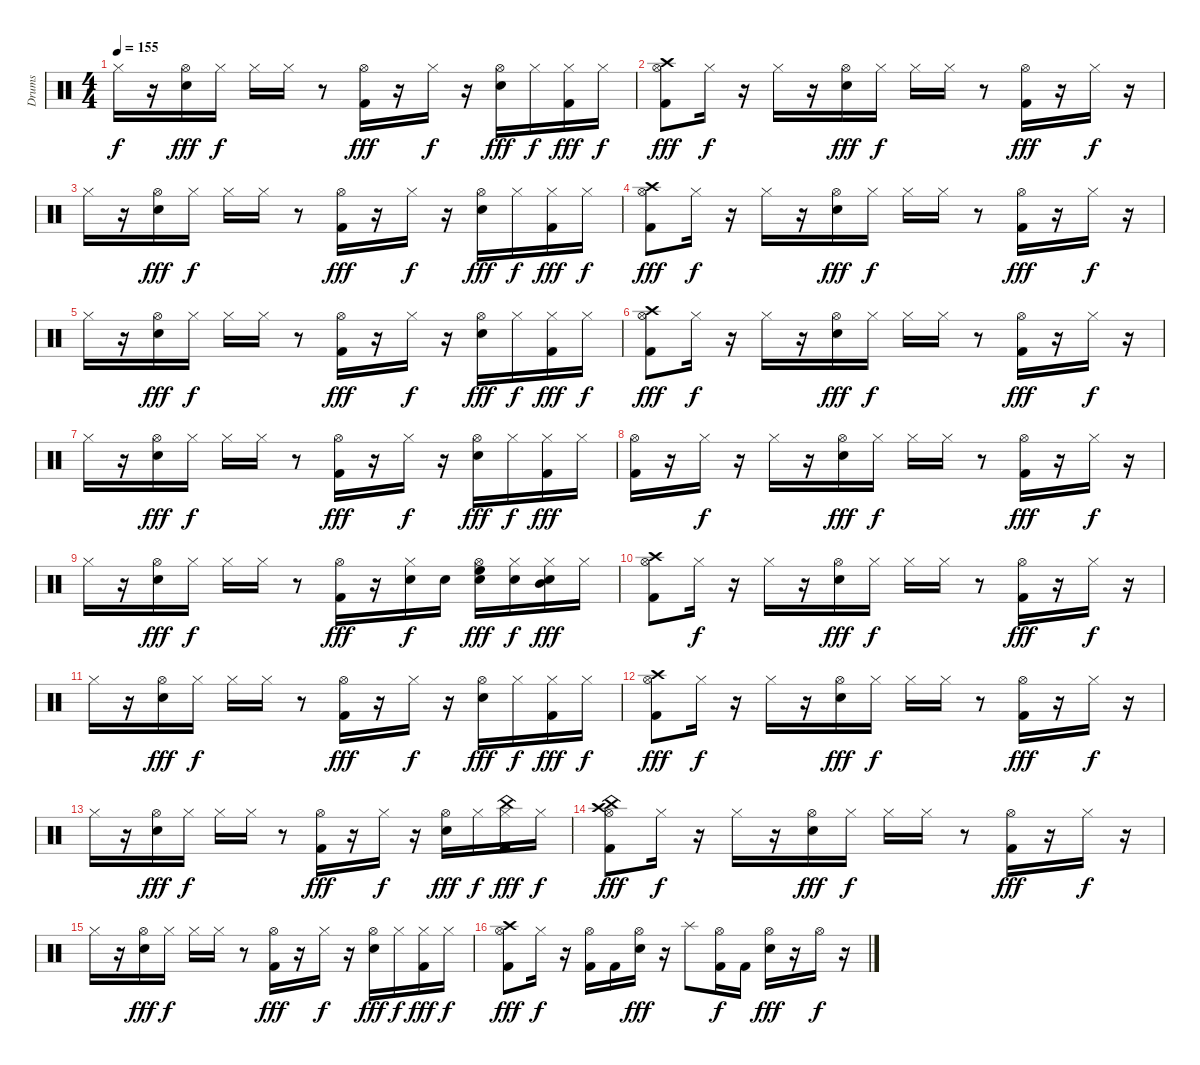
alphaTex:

\track ("Drums" "Drums") {instrument percussion}
\staff {score}
\articulation defaults
\ts (4 4)
\tempo 155
\clef neutral
\ks c "Hi-Hat (closed)".16{dy f}
r.16 ("Hi-Hat (open)" "Electric Snare (hit)").16{dy fff} "Hi-Hat (closed)".16{dy f} "Hi-Hat (closed)".16 "Hi-Hat (closed)".16 r.8 ("Hi-Hat (open)" "Kick (hit) 2").16{dy fff} r.16 "Hi-Hat (closed)".16{dy f} r.16 ("Hi-Hat (open)" "Electric Snare (hit)").16{dy fff} "Hi-Hat (closed)".16{dy f} ("Hi-Hat (closed)" "Kick (hit) 2").16{dy fff} "Hi-Hat (closed)".16{dy f} |
("Crash high (hit)" "Kick (hit) 2" "Hi-Hat (open)").8{dy fff} "Hi-Hat (closed)".16{dy f} r.16 "Hi-Hat (closed)".16 r.16 ("Hi-Hat (open)" "Electric Snare (hit)").16{dy fff} "Hi-Hat (closed)".16{dy f} "Hi-Hat (closed)".16 "Hi-Hat (closed)".16 r.8 ("Hi-Hat (open)" "Kick (hit) 2").16{dy fff} r.16 "Hi-Hat (closed)".16{dy f} r.16 |
"Hi-Hat (closed)".16 r.16 ("Hi-Hat (open)" "Electric Snare (hit)").16{dy fff} "Hi-Hat (closed)".16{dy f} "Hi-Hat (closed)".16 "Hi-Hat (closed)".16 r.8 ("Hi-Hat (open)" "Kick (hit) 2").16{dy fff} r.16 "Hi-Hat (closed)".16{dy f} r.16 ("Hi-Hat (open)" "Electric Snare (hit)").16{dy fff} "Hi-Hat (closed)".16{dy f} ("Hi-Hat (closed)" "Kick (hit) 2").16{dy fff} "Hi-Hat (closed)".16{dy f} |
("Crash high (hit)" "Kick (hit) 2" "Hi-Hat (open)").8{dy fff} "Hi-Hat (closed)".16{dy f} r.16 "Hi-Hat (closed)".16 r.16 ("Hi-Hat (open)" "Electric Snare (hit)").16{dy fff} "Hi-Hat (closed)".16{dy f} "Hi-Hat (closed)".16 "Hi-Hat (closed)".16 r.8 ("Hi-Hat (open)" "Kick (hit) 2").16{dy fff} r.16 "Hi-Hat (closed)".16{dy f} r.16 |
"Hi-Hat (closed)".16 r.16 ("Hi-Hat (open)" "Electric Snare (hit)").16{dy fff} "Hi-Hat (closed)".16{dy f} "Hi-Hat (closed)".16 "Hi-Hat (closed)".16 r.8 ("Hi-Hat (open)" "Kick (hit) 2").16{dy fff} r.16 "Hi-Hat (closed)".16{dy f} r.16 ("Hi-Hat (open)" "Electric Snare (hit)").16{dy fff} "Hi-Hat (closed)".16{dy f} ("Hi-Hat (closed)" "Kick (hit) 2").16{dy fff} "Hi-Hat (closed)".16{dy f} |
("Crash high (hit)" "Kick (hit) 2" "Hi-Hat (open)").8{dy fff} "Hi-Hat (closed)".16{dy f} r.16 "Hi-Hat (closed)".16 r.16 ("Hi-Hat (open)" "Electric Snare (hit)").16{dy fff} "Hi-Hat (closed)".16{dy f} "Hi-Hat (closed)".16 "Hi-Hat (closed)".16 r.8 ("Hi-Hat (open)" "Kick (hit) 2").16{dy fff} r.16 "Hi-Hat (closed)".16{dy f} r.16 |
"Hi-Hat (closed)".16 r.16 ("Hi-Hat (open)" "Electric Snare (hit)").16{dy fff} "Hi-Hat (closed)".16{dy f} "Hi-Hat (closed)".16 "Hi-Hat (closed)".16 r.8 ("Hi-Hat (open)" "Kick (hit) 2").16{dy fff} r.16 "Hi-Hat (closed)".16{dy f} r.16 ("Hi-Hat (open)" "Electric Snare (hit)").16{dy fff} "Hi-Hat (closed)".16{dy f} ("Hi-Hat (closed)" "Kick (hit) 2").16{dy fff} "Hi-Hat (closed)".16 |
("Hi-Hat (open)" "Kick (hit) 2").16 r.16 "Hi-Hat (closed)".16{dy f} r.16 "Hi-Hat (closed)".16 r.16 ("Hi-Hat (open)" "Electric Snare (hit)").16{dy fff} "Hi-Hat (closed)".16{dy f} "Hi-Hat (closed)".16 "Hi-Hat (closed)".16 r.8 ("Hi-Hat (open)" "Kick (hit) 2").16{dy fff} r.16 "Hi-Hat (closed)".16{dy f} r.16 |
"Hi-Hat (closed)".16 r.16 ("Hi-Hat (open)" "Electric Snare (hit)").16{dy fff} "Hi-Hat (closed)".16{dy f} "Hi-Hat (closed)".16 "Hi-Hat (closed)".16 r.8 ("Hi-Hat (open)" "Kick (hit) 2").16{dy fff} r.16 ("Electric Snare (hit)" "Hi-Hat (closed)").16{dy f} "Electric Snare (hit)".16 ("High Floor Tom (hit)" "Hi-Hat (open)" "Electric Snare (hit)").16{dy fff} ("Electric Snare (hit)" "Hi-Hat (closed)").16{dy f} ("Hi-Hat (closed)" "Electric Snare (hit)" "Mid Tom (hit)").16{dy fff} "Hi-Hat (closed)".16 |
("Crash high (hit)" "Kick (hit) 2" "Hi-Hat (open)").8 "Hi-Hat (closed)".16{dy f} r.16 "Hi-Hat (closed)".16 r.16 ("Hi-Hat (open)" "Electric Snare (hit)").16{dy fff} "Hi-Hat (closed)".16{dy f} "Hi-Hat (closed)".16 "Hi-Hat (closed)".16 r.8 ("Hi-Hat (open)" "Kick (hit) 2").16{dy fff} r.16 "Hi-Hat (closed)".16{dy f} r.16 |
"Hi-Hat (closed)".16 r.16 ("Hi-Hat (open)" "Electric Snare (hit)").16{dy fff} "Hi-Hat (closed)".16{dy f} "Hi-Hat (closed)".16 "Hi-Hat (closed)".16 r.8 ("Hi-Hat (open)" "Kick (hit) 2").16{dy fff} r.16 "Hi-Hat (closed)".16{dy f} r.16 ("Hi-Hat (open)" "Electric Snare (hit)").16{dy fff} "Hi-Hat (closed)".16{dy f} ("Hi-Hat (closed)" "Kick (hit) 2").16{dy fff} "Hi-Hat (closed)".16{dy f} |
("Crash high (hit)" "Kick (hit) 2" "Hi-Hat (open)").8{dy fff} "Hi-Hat (closed)".16{dy f} r.16 "Hi-Hat (closed)".16 r.16 ("Hi-Hat (open)" "Electric Snare (hit)").16{dy fff} "Hi-Hat (closed)".16{dy f} "Hi-Hat (closed)".16 "Hi-Hat (closed)".16 r.8 ("Hi-Hat (open)" "Kick (hit) 2").16{dy fff} r.16 "Hi-Hat (closed)".16{dy f} r.16 |
"Hi-Hat (closed)".16 r.16 ("Hi-Hat (open)" "Electric Snare (hit)").16{dy fff} "Hi-Hat (closed)".16{dy f} "Hi-Hat (closed)".16 "Hi-Hat (closed)".16 r.8 ("Hi-Hat (open)" "Kick (hit) 2").16{dy fff} r.16 "Hi-Hat (closed)".16{dy f} r.16 ("Hi-Hat (open)" "Electric Snare (hit)").16{dy fff} "Hi-Hat (closed)".16{dy f} ("China (hit)" "Hi-Hat (closed)" "Kick (hit) 2").16{dy fff} "Hi-Hat (closed)".16{dy f} |
("China (hit)" "Crash high (hit)" "Kick (hit) 2" "Hi-Hat (open)").8{dy fff} "Hi-Hat (closed)".16{dy f} r.16 "Hi-Hat (closed)".16 r.16 ("Hi-Hat (open)" "Electric Snare (hit)").16{dy fff} "Hi-Hat (closed)".16{dy f} "Hi-Hat (closed)".16 "Hi-Hat (closed)".16 r.8 ("Hi-Hat (open)" "Kick (hit) 2").16{dy fff} r.16 "Hi-Hat (closed)".16{dy f} r.16 |
"Hi-Hat (closed)".16 r.16 ("Hi-Hat (open)" "Electric Snare (hit)").16{dy fff} "Hi-Hat (closed)".16{dy f} "Hi-Hat (closed)".16 "Hi-Hat (closed)".16 r.8 ("Hi-Hat (open)" "Kick (hit) 2").16{dy fff} r.16 "Hi-Hat (closed)".16{dy f} r.16 ("Hi-Hat (open)" "Electric Snare (hit)").16{dy fff} "Hi-Hat (closed)".16{dy f} ("Hi-Hat (closed)" "Kick (hit) 2").16{dy fff} "Hi-Hat (closed)".16{dy f} |
("Crash high (hit)" "Kick (hit) 2" "Hi-Hat (open)").8{dy fff} "Hi-Hat (closed)".16{dy f} r.16 ("Kick (hit) 2" "Hi-Hat (open)").16 "Kick (hit) 2".16 ("Hi-Hat (open)" "Electric Snare (hit)").16{dy fff} r.16 "Splash (hit)".8 ("Hi-Hat (open)" "Kick (hit) 2").16{dy f} "Kick (hit) 2".16 ("Electric Snare (hit)" "Hi-Hat (open)").16{dy fff} r.16 "Hi-Hat (open)".16{dy f} r.16
